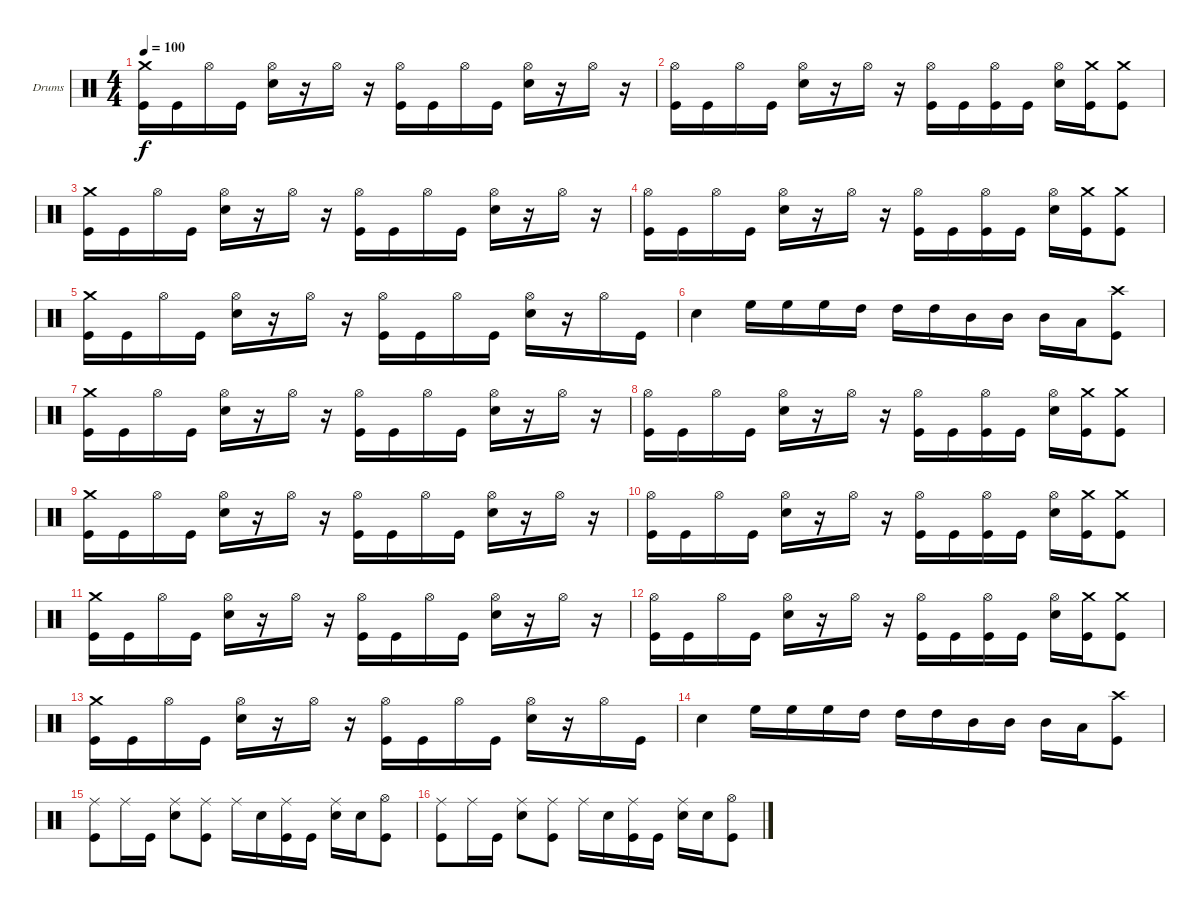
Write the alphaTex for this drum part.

\bracketExtendMode groupsimilarinstruments
\firstSystemTrackNameOrientation horizontal
\otherSystemsTrackNameOrientation horizontal
\track ("Nick Menza" "Drums") {instrument percussion}
\staff {score}
\articulation defaults
\ts (4 4)
\tempo 100
\clef neutral
\ks c
("Crash medium (hit)" "Kick (hit)").16{dy f} "Kick (hit)".16 "Hi-Hat (open)".16 "Kick (hit)".16 ("Hi-Hat (open)" "Snare (hit) 2").16 r.16 "Hi-Hat (open)".16 r.16 ("Hi-Hat (open)" "Kick (hit)").16 "Kick (hit)".16 "Hi-Hat (open)".16 "Kick (hit)".16 ("Hi-Hat (open)" "Snare (hit) 2").16 r.16 "Hi-Hat (open)".16 r.16 |
("Hi-Hat (open)" "Kick (hit)").16 "Kick (hit)".16 "Hi-Hat (open)".16 "Kick (hit)".16 ("Hi-Hat (open)" "Snare (hit) 2").16 r.16 "Hi-Hat (open)".16 r.16 ("Hi-Hat (open)" "Kick (hit)").16 "Kick (hit)".16 ("Hi-Hat (open)" "Kick (hit)").16 "Kick (hit)".16 ("Hi-Hat (open)" "Snare (hit) 2").16 ("Crash medium (hit)" "Kick (hit)").16 ("Crash medium (hit)" "Kick (hit)").8 |
("Crash medium (hit)" "Kick (hit)").16 "Kick (hit)".16 "Hi-Hat (open)".16 "Kick (hit)".16 ("Hi-Hat (open)" "Snare (hit) 2").16 r.16 "Hi-Hat (open)".16 r.16 ("Hi-Hat (open)" "Kick (hit)").16 "Kick (hit)".16 "Hi-Hat (open)".16 "Kick (hit)".16 ("Hi-Hat (open)" "Snare (hit) 2").16 r.16 "Hi-Hat (open)".16 r.16 |
("Hi-Hat (open)" "Kick (hit)").16 "Kick (hit)".16 "Hi-Hat (open)".16 "Kick (hit)".16 ("Hi-Hat (open)" "Snare (hit) 2").16 r.16 "Hi-Hat (open)".16 r.16 ("Hi-Hat (open)" "Kick (hit)").16 "Kick (hit)".16 ("Hi-Hat (open)" "Kick (hit)").16 "Kick (hit)".16 ("Hi-Hat (open)" "Snare (hit) 2").16 ("Crash medium (hit)" "Kick (hit)").16 ("Crash medium (hit)" "Kick (hit)").8 |
("Crash medium (hit)" "Kick (hit)").16 "Kick (hit)".16 "Hi-Hat (open)".16 "Kick (hit)".16 ("Hi-Hat (open)" "Snare (hit) 2").16 r.16 "Hi-Hat (open)".16 r.16 ("Hi-Hat (open)" "Kick (hit)").16 "Kick (hit)".16 "Hi-Hat (open)".16 "Kick (hit)".16 ("Hi-Hat (open)" "Snare (hit) 2").16 r.16 "Hi-Hat (open)".16 "Kick (hit)".16 |
"Snare (hit) 2".4 "High Floor Tom (hit)".16 "High Floor Tom (hit)".16 "High Floor Tom (hit)".16 "High Tom (hit)".16 "High Tom (hit)".16 "High Tom (hit)".16 "Mid Tom (hit)".16 "Mid Tom (hit)".16 "Mid Tom (hit)".16 "Low Tom (hit)".16 ("Crash high (hit)" "Kick (hit)").8 |
("Crash medium (hit)" "Kick (hit)").16 "Kick (hit)".16 "Hi-Hat (open)".16 "Kick (hit)".16 ("Hi-Hat (open)" "Snare (hit) 2").16 r.16 "Hi-Hat (open)".16 r.16 ("Hi-Hat (open)" "Kick (hit)").16 "Kick (hit)".16 "Hi-Hat (open)".16 "Kick (hit)".16 ("Hi-Hat (open)" "Snare (hit) 2").16 r.16 "Hi-Hat (open)".16 r.16 |
("Hi-Hat (open)" "Kick (hit)").16 "Kick (hit)".16 "Hi-Hat (open)".16 "Kick (hit)".16 ("Hi-Hat (open)" "Snare (hit) 2").16 r.16 "Hi-Hat (open)".16 r.16 ("Hi-Hat (open)" "Kick (hit)").16 "Kick (hit)".16 ("Hi-Hat (open)" "Kick (hit)").16 "Kick (hit)".16 ("Hi-Hat (open)" "Snare (hit) 2").16 ("Crash medium (hit)" "Kick (hit)").16 ("Crash medium (hit)" "Kick (hit)").8 |
("Crash medium (hit)" "Kick (hit)").16 "Kick (hit)".16 "Hi-Hat (open)".16 "Kick (hit)".16 ("Hi-Hat (open)" "Snare (hit) 2").16 r.16 "Hi-Hat (open)".16 r.16 ("Hi-Hat (open)" "Kick (hit)").16 "Kick (hit)".16 "Hi-Hat (open)".16 "Kick (hit)".16 ("Hi-Hat (open)" "Snare (hit) 2").16 r.16 "Hi-Hat (open)".16 r.16 |
("Hi-Hat (open)" "Kick (hit)").16 "Kick (hit)".16 "Hi-Hat (open)".16 "Kick (hit)".16 ("Hi-Hat (open)" "Snare (hit) 2").16 r.16 "Hi-Hat (open)".16 r.16 ("Hi-Hat (open)" "Kick (hit)").16 "Kick (hit)".16 ("Hi-Hat (open)" "Kick (hit)").16 "Kick (hit)".16 ("Hi-Hat (open)" "Snare (hit) 2").16 ("Crash medium (hit)" "Kick (hit)").16 ("Crash medium (hit)" "Kick (hit)").8 |
("Crash medium (hit)" "Kick (hit)").16 "Kick (hit)".16 "Hi-Hat (open)".16 "Kick (hit)".16 ("Hi-Hat (open)" "Snare (hit) 2").16 r.16 "Hi-Hat (open)".16 r.16 ("Hi-Hat (open)" "Kick (hit)").16 "Kick (hit)".16 "Hi-Hat (open)".16 "Kick (hit)".16 ("Hi-Hat (open)" "Snare (hit) 2").16 r.16 "Hi-Hat (open)".16 r.16 |
("Hi-Hat (open)" "Kick (hit)").16 "Kick (hit)".16 "Hi-Hat (open)".16 "Kick (hit)".16 ("Hi-Hat (open)" "Snare (hit) 2").16 r.16 "Hi-Hat (open)".16 r.16 ("Hi-Hat (open)" "Kick (hit)").16 "Kick (hit)".16 ("Hi-Hat (open)" "Kick (hit)").16 "Kick (hit)".16 ("Hi-Hat (open)" "Snare (hit) 2").16 ("Crash medium (hit)" "Kick (hit)").16 ("Crash medium (hit)" "Kick (hit)").8 |
("Crash medium (hit)" "Kick (hit)").16 "Kick (hit)".16 "Hi-Hat (open)".16 "Kick (hit)".16 ("Hi-Hat (open)" "Snare (hit) 2").16 r.16 "Hi-Hat (open)".16 r.16 ("Hi-Hat (open)" "Kick (hit)").16 "Kick (hit)".16 "Hi-Hat (open)".16 "Kick (hit)".16 ("Hi-Hat (open)" "Snare (hit) 2").16 r.16 "Hi-Hat (open)".16 "Kick (hit)".16 |
"Snare (hit) 2".4 "High Floor Tom (hit)".16 "High Floor Tom (hit)".16 "High Floor Tom (hit)".16 "High Tom (hit)".16 "High Tom (hit)".16 "High Tom (hit)".16 "Mid Tom (hit)".16 "Mid Tom (hit)".16 "Mid Tom (hit)".16 "Low Tom (hit)".16 ("Crash high (hit)" "Kick (hit)").8 |
("Ride (middle)" "Kick (hit)").8 "Ride (middle)".16 "Kick (hit)".16 ("Ride (middle)" "Snare (hit) 2").8 ("Ride (middle)" "Kick (hit)").8 "Ride (middle)".16 "Snare (hit) 2".16 ("Ride (middle)" "Kick (hit)").16 "Kick (hit)".16 ("Ride (middle)" "Snare (hit) 2").16 "Snare (hit) 2".16 ("Hi-Hat (open)" "Kick (hit)").8 |
("Ride (middle)" "Kick (hit)").8 "Ride (middle)".16 "Kick (hit)".16 ("Ride (middle)" "Snare (hit) 2").8 ("Ride (middle)" "Kick (hit)").8 "Ride (middle)".16 "Snare (hit) 2".16 ("Ride (middle)" "Kick (hit)").16 "Kick (hit)".16 ("Ride (middle)" "Snare (hit) 2").16 "Snare (hit) 2".16 ("Hi-Hat (open)" "Kick (hit)").8
